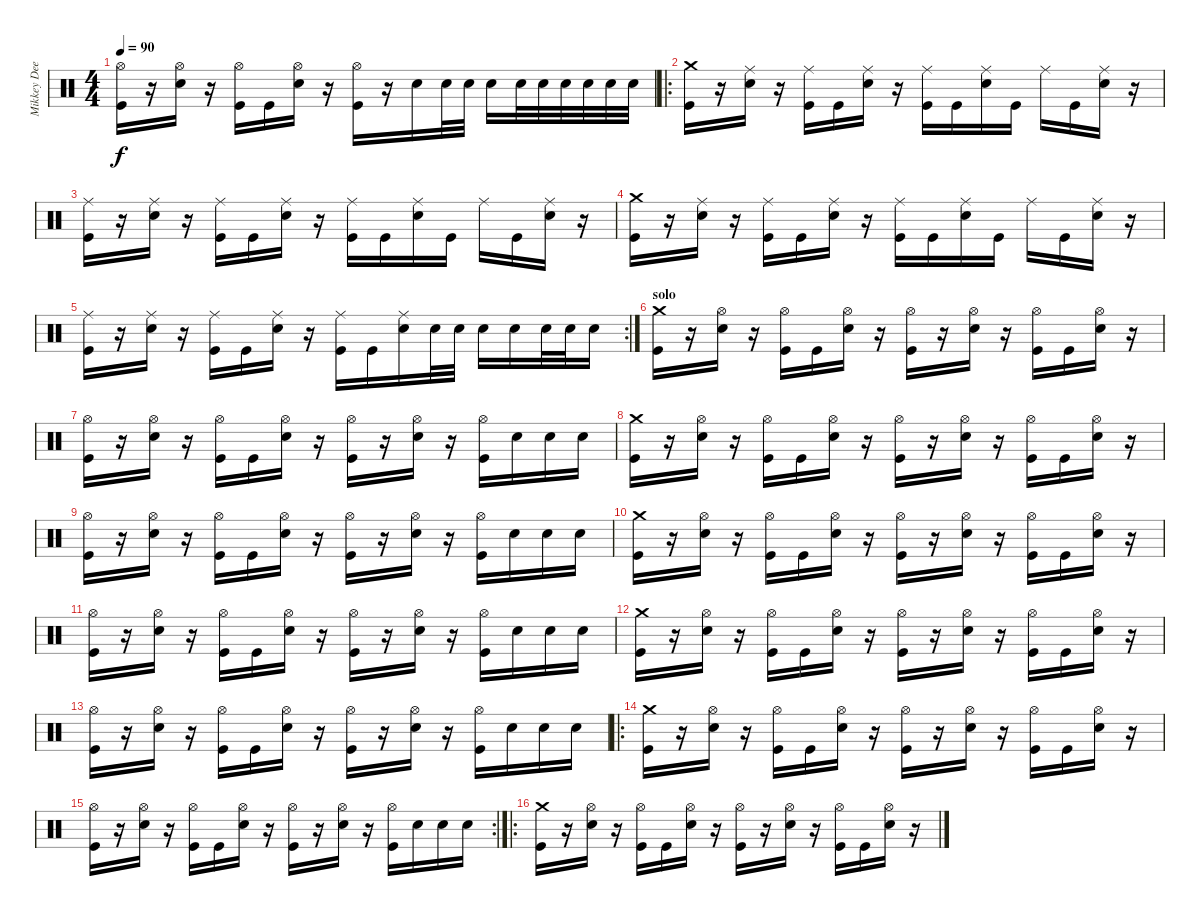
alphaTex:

\track ("Mikkey Dee" "Mikkey Dee") {instrument percussion}
\staff {score}
\articulation defaults
\ts (4 4)
\tempo 90
\clef neutral
\ks c
("Hi-Hat (open)" "Kick (hit)").16{dy f} r.16 ("Hi-Hat (open)" "Snare (hit) 2").16 r.16 ("Hi-Hat (open)" "Kick (hit)").16 "Kick (hit)".16 ("Hi-Hat (open)" "Snare (hit) 2").16 r.16 ("Hi-Hat (open)" "Kick (hit)").16 r.16 "Snare (hit) 2".16 "Snare (hit) 2".32 "Snare (hit) 2".32 "Snare (hit) 2".16 "Snare (hit) 2".32 "Snare (hit) 2".32 "Snare (hit) 2".32 "Snare (hit) 2".32 "Snare (hit) 2".32 "Snare (hit) 2".32 |
\ro
("Crash medium (hit)" "Kick (hit)").16 r.16 ("Ride (middle)" "Snare (hit) 2").16 r.16 ("Ride (middle)" "Kick (hit)").16 "Kick (hit)".16 ("Ride (middle)" "Snare (hit) 2").16 r.16 ("Ride (middle)" "Kick (hit)").16 "Kick (hit)".16 ("Ride (middle)" "Snare (hit) 2").16 "Kick (hit)".16 "Ride (middle)".16 "Kick (hit)".16 ("Ride (middle)" "Snare (hit) 2").16 r.16 |
("Ride (middle)" "Kick (hit)").16 r.16 ("Ride (middle)" "Snare (hit) 2").16 r.16 ("Ride (middle)" "Kick (hit)").16 "Kick (hit)".16 ("Ride (middle)" "Snare (hit) 2").16 r.16 ("Ride (middle)" "Kick (hit)").16 "Kick (hit)".16 ("Ride (middle)" "Snare (hit) 2").16 "Kick (hit)".16 "Ride (middle)".16 "Kick (hit)".16 ("Ride (middle)" "Snare (hit) 2").16 r.16 |
("Crash medium (hit)" "Kick (hit)").16 r.16 ("Ride (middle)" "Snare (hit) 2").16 r.16 ("Ride (middle)" "Kick (hit)").16 "Kick (hit)".16 ("Ride (middle)" "Snare (hit) 2").16 r.16 ("Ride (middle)" "Kick (hit)").16 "Kick (hit)".16 ("Ride (middle)" "Snare (hit) 2").16 "Kick (hit)".16 "Ride (middle)".16 "Kick (hit)".16 ("Ride (middle)" "Snare (hit) 2").16 r.16 |
\rc 2
("Ride (middle)" "Kick (hit)").16 r.16 ("Ride (middle)" "Snare (hit) 2").16 r.16 ("Ride (middle)" "Kick (hit)").16 "Kick (hit)".16 ("Ride (middle)" "Snare (hit) 2").16 r.16 ("Ride (middle)" "Kick (hit)").16 "Kick (hit)".16 ("Ride (middle)" "Snare (hit) 2").16 "Snare (hit) 2".32 "Snare (hit) 2".32 "Snare (hit) 2".16 "Snare (hit) 2".16 "Snare (hit) 2".32 "Snare (hit) 2".32 "Snare (hit) 2".16 |
\section ("" "solo")
("Crash medium (hit)" "Kick (hit)").16 r.16 ("Hi-Hat (open)" "Snare (hit) 2").16 r.16 ("Hi-Hat (open)" "Kick (hit)").16 "Kick (hit)".16 ("Hi-Hat (open)" "Snare (hit) 2").16 r.16 ("Hi-Hat (open)" "Kick (hit)").16 r.16 ("Hi-Hat (open)" "Snare (hit) 2").16 r.16 ("Hi-Hat (open)" "Kick (hit)").16 "Kick (hit)".16 ("Hi-Hat (open)" "Snare (hit) 2").16 r.16 |
("Hi-Hat (open)" "Kick (hit)").16 r.16 ("Hi-Hat (open)" "Snare (hit) 2").16 r.16 ("Hi-Hat (open)" "Kick (hit)").16 "Kick (hit)".16 ("Hi-Hat (open)" "Snare (hit) 2").16 r.16 ("Hi-Hat (open)" "Kick (hit)").16 r.16 ("Hi-Hat (open)" "Snare (hit) 2").16 r.16 ("Hi-Hat (open)" "Kick (hit)").16 "Snare (hit) 2".16 "Snare (hit) 2".16 "Snare (hit) 2".16 |
("Crash medium (hit)" "Kick (hit)").16 r.16 ("Hi-Hat (open)" "Snare (hit) 2").16 r.16 ("Hi-Hat (open)" "Kick (hit)").16 "Kick (hit)".16 ("Hi-Hat (open)" "Snare (hit) 2").16 r.16 ("Hi-Hat (open)" "Kick (hit)").16 r.16 ("Hi-Hat (open)" "Snare (hit) 2").16 r.16 ("Hi-Hat (open)" "Kick (hit)").16 "Kick (hit)".16 ("Hi-Hat (open)" "Snare (hit) 2").16 r.16 |
("Hi-Hat (open)" "Kick (hit)").16 r.16 ("Hi-Hat (open)" "Snare (hit) 2").16 r.16 ("Hi-Hat (open)" "Kick (hit)").16 "Kick (hit)".16 ("Hi-Hat (open)" "Snare (hit) 2").16 r.16 ("Hi-Hat (open)" "Kick (hit)").16 r.16 ("Hi-Hat (open)" "Snare (hit) 2").16 r.16 ("Hi-Hat (open)" "Kick (hit)").16 "Snare (hit) 2".16 "Snare (hit) 2".16 "Snare (hit) 2".16 |
("Crash medium (hit)" "Kick (hit)").16 r.16 ("Hi-Hat (open)" "Snare (hit) 2").16 r.16 ("Hi-Hat (open)" "Kick (hit)").16 "Kick (hit)".16 ("Hi-Hat (open)" "Snare (hit) 2").16 r.16 ("Hi-Hat (open)" "Kick (hit)").16 r.16 ("Hi-Hat (open)" "Snare (hit) 2").16 r.16 ("Hi-Hat (open)" "Kick (hit)").16 "Kick (hit)".16 ("Hi-Hat (open)" "Snare (hit) 2").16 r.16 |
("Hi-Hat (open)" "Kick (hit)").16 r.16 ("Hi-Hat (open)" "Snare (hit) 2").16 r.16 ("Hi-Hat (open)" "Kick (hit)").16 "Kick (hit)".16 ("Hi-Hat (open)" "Snare (hit) 2").16 r.16 ("Hi-Hat (open)" "Kick (hit)").16 r.16 ("Hi-Hat (open)" "Snare (hit) 2").16 r.16 ("Hi-Hat (open)" "Kick (hit)").16 "Snare (hit) 2".16 "Snare (hit) 2".16 "Snare (hit) 2".16 |
("Crash medium (hit)" "Kick (hit)").16 r.16 ("Hi-Hat (open)" "Snare (hit) 2").16 r.16 ("Hi-Hat (open)" "Kick (hit)").16 "Kick (hit)".16 ("Hi-Hat (open)" "Snare (hit) 2").16 r.16 ("Hi-Hat (open)" "Kick (hit)").16 r.16 ("Hi-Hat (open)" "Snare (hit) 2").16 r.16 ("Hi-Hat (open)" "Kick (hit)").16 "Kick (hit)".16 ("Hi-Hat (open)" "Snare (hit) 2").16 r.16 |
("Hi-Hat (open)" "Kick (hit)").16 r.16 ("Hi-Hat (open)" "Snare (hit) 2").16 r.16 ("Hi-Hat (open)" "Kick (hit)").16 "Kick (hit)".16 ("Hi-Hat (open)" "Snare (hit) 2").16 r.16 ("Hi-Hat (open)" "Kick (hit)").16 r.16 ("Hi-Hat (open)" "Snare (hit) 2").16 r.16 ("Hi-Hat (open)" "Kick (hit)").16 "Snare (hit) 2".16 "Snare (hit) 2".16 "Snare (hit) 2".16 |
\ro
("Crash medium (hit)" "Kick (hit)").16 r.16 ("Hi-Hat (open)" "Snare (hit) 2").16 r.16 ("Hi-Hat (open)" "Kick (hit)").16 "Kick (hit)".16 ("Hi-Hat (open)" "Snare (hit) 2").16 r.16 ("Hi-Hat (open)" "Kick (hit)").16 r.16 ("Hi-Hat (open)" "Snare (hit) 2").16 r.16 ("Hi-Hat (open)" "Kick (hit)").16 "Kick (hit)".16 ("Hi-Hat (open)" "Snare (hit) 2").16 r.16 |
\rc 2
("Hi-Hat (open)" "Kick (hit)").16 r.16 ("Hi-Hat (open)" "Snare (hit) 2").16 r.16 ("Hi-Hat (open)" "Kick (hit)").16 "Kick (hit)".16 ("Hi-Hat (open)" "Snare (hit) 2").16 r.16 ("Hi-Hat (open)" "Kick (hit)").16 r.16 ("Hi-Hat (open)" "Snare (hit) 2").16 r.16 ("Hi-Hat (open)" "Kick (hit)").16 "Snare (hit) 2".16 "Snare (hit) 2".16 "Snare (hit) 2".16 |
\ro
("Crash medium (hit)" "Kick (hit)").16 r.16 ("Hi-Hat (open)" "Snare (hit) 2").16 r.16 ("Hi-Hat (open)" "Kick (hit)").16 "Kick (hit)".16 ("Hi-Hat (open)" "Snare (hit) 2").16 r.16 ("Hi-Hat (open)" "Kick (hit)").16 r.16 ("Hi-Hat (open)" "Snare (hit) 2").16 r.16 ("Hi-Hat (open)" "Kick (hit)").16 "Kick (hit)".16 ("Hi-Hat (open)" "Snare (hit) 2").16 r.16
